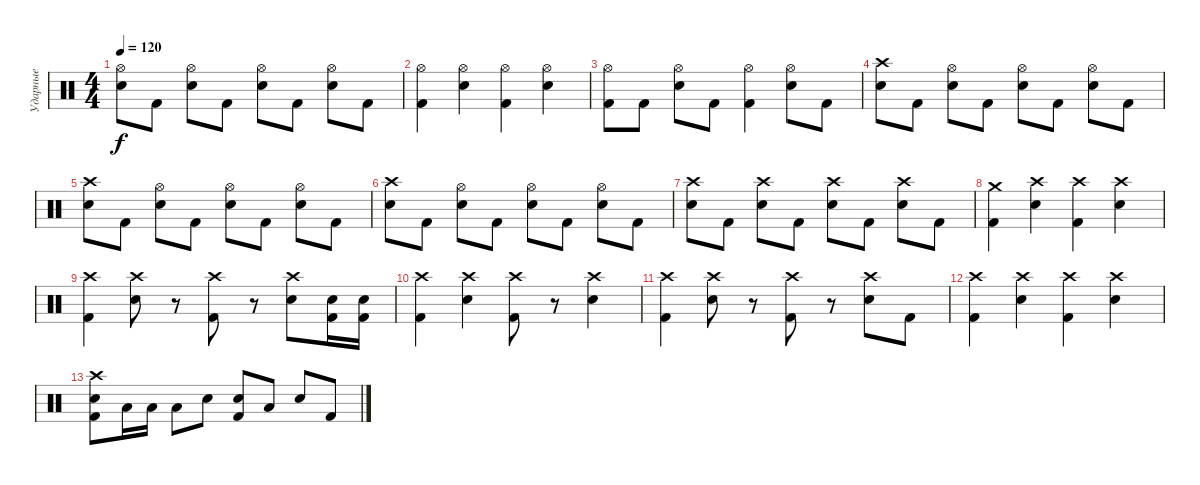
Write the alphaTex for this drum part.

\track ("Ударные" "Ударные") {instrument percussion}
\staff {score}
\articulation defaults
\ts (4 4)
\tempo 120
\clef neutral
\ks c
("Hi-Hat (open)" "Electric Snare (hit)").8{dy f} "Kick (hit) 2".8 ("Hi-Hat (open)" "Electric Snare (hit)").8 "Kick (hit) 2".8 ("Hi-Hat (open)" "Electric Snare (hit)").8 "Kick (hit) 2".8 ("Hi-Hat (open)" "Electric Snare (hit)").8 "Kick (hit) 2".8 |
("Hi-Hat (open)" "Kick (hit) 2").4 ("Hi-Hat (open)" "Electric Snare (hit)").4 ("Hi-Hat (open)" "Kick (hit) 2").4 ("Hi-Hat (open)" "Electric Snare (hit)").4 |
("Hi-Hat (open)" "Kick (hit) 2").8 "Kick (hit) 2".8 ("Hi-Hat (open)" "Electric Snare (hit)").8 "Kick (hit) 2".8 ("Hi-Hat (open)" "Kick (hit) 2").4 ("Hi-Hat (open)" "Electric Snare (hit)").8 "Kick (hit) 2".8 |
("Crash high (hit)" "Electric Snare (hit)").8 "Kick (hit) 2".8 ("Hi-Hat (open)" "Electric Snare (hit)").8 "Kick (hit) 2".8 ("Hi-Hat (open)" "Electric Snare (hit)").8 "Kick (hit) 2".8 ("Hi-Hat (open)" "Electric Snare (hit)").8 "Kick (hit) 2".8 |
("Crash high (hit)" "Electric Snare (hit)").8 "Kick (hit) 2".8 ("Hi-Hat (open)" "Electric Snare (hit)").8 "Kick (hit) 2".8 ("Hi-Hat (open)" "Electric Snare (hit)").8 "Kick (hit) 2".8 ("Hi-Hat (open)" "Electric Snare (hit)").8 "Kick (hit) 2".8 |
("Crash high (hit)" "Electric Snare (hit)").8 "Kick (hit) 2".8 ("Hi-Hat (open)" "Electric Snare (hit)").8 "Kick (hit) 2".8 ("Hi-Hat (open)" "Electric Snare (hit)").8 "Kick (hit) 2".8 ("Hi-Hat (open)" "Electric Snare (hit)").8 "Kick (hit) 2".8 |
("Crash high (hit)" "Electric Snare (hit)").8 "Kick (hit) 2".8 ("Crash high (hit)" "Electric Snare (hit)").8 "Kick (hit) 2".8 ("Crash high (hit)" "Electric Snare (hit)").8 "Kick (hit) 2".8 ("Crash high (hit)" "Electric Snare (hit)").8 "Kick (hit) 2".8 |
("Crash medium (hit)" "Kick (hit) 2").4 ("Crash high (hit)" "Electric Snare (hit)").4 ("Crash high (hit)" "Kick (hit) 2").4 ("Crash high (hit)" "Electric Snare (hit)").4 |
("Crash high (hit)" "Kick (hit) 2").4 ("Crash high (hit)" "Electric Snare (hit)").8 r.8 ("Crash high (hit)" "Kick (hit) 2").8 r.8 ("Crash high (hit)" "Electric Snare (hit)").8 ("Electric Snare (hit)" "Kick (hit) 2").16 ("Electric Snare (hit)" "Kick (hit) 2").16 |
("Crash high (hit)" "Kick (hit) 2").4 ("Crash high (hit)" "Electric Snare (hit)").4 ("Crash high (hit)" "Kick (hit) 2").8 r.8 ("Crash high (hit)" "Electric Snare (hit)").4 |
("Crash high (hit)" "Kick (hit) 2").4 ("Crash high (hit)" "Electric Snare (hit)").8 r.8 ("Crash high (hit)" "Kick (hit) 2").8 r.8 ("Crash high (hit)" "Electric Snare (hit)").8 "Kick (hit) 2".8 |
("Crash high (hit)" "Kick (hit) 2").4 ("Crash high (hit)" "Electric Snare (hit)").4 ("Crash high (hit)" "Kick (hit) 2").4 ("Crash high (hit)" "Electric Snare (hit)").4 |
("Crash high (hit)" "Electric Snare (hit)" "Kick (hit) 2").8 "Low Tom (hit)".16 "Low Tom (hit)".16 "Low Tom (hit)".8 "Electric Snare (hit)".8 ("Electric Snare (hit)" "Kick (hit) 2").8 "Low Tom (hit)".8 "Electric Snare (hit)".8 "Kick (hit) 2".8
